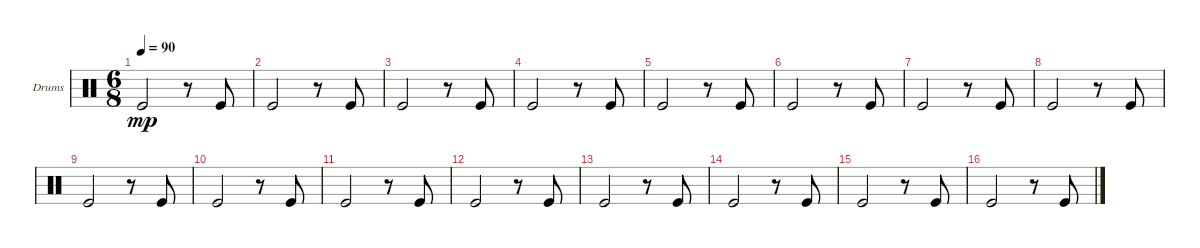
\defaultSystemsLayout 4
\bracketExtendMode groupsimilarinstruments
\firstSystemTrackNameOrientation horizontal
\otherSystemsTrackNameOrientation horizontal
\track ("Drumkit" "Drums") {instrument percussion}
\staff {score}
\articulation defaults
\ts (6 8)
\tempo 90
\clef neutral
\scale
0.263889
\ks c "Kick (hit)".2{dy mp}
r.8 "Kick (hit)".8 |
\scale
0.263889 "Kick (hit)".2 r.8 "Kick (hit)".8 |
\scale
0.333333 "Kick (hit)".2 r.8 "Kick (hit)".8 |
\scale
0.333333 "Kick (hit)".2 r.8 "Kick (hit)".8 |
\scale
0.333333 "Kick (hit)".2 r.8 "Kick (hit)".8 |
\scale
0.333333 "Kick (hit)".2 r.8 "Kick (hit)".8 |
\scale
0.333333 "Kick (hit)".2 r.8 "Kick (hit)".8 |
\scale
0.333333 "Kick (hit)".2 r.8 "Kick (hit)".8 |
\scale
0.333333 "Kick (hit)".2 r.8 "Kick (hit)".8 |
\scale
0.333333 "Kick (hit)".2 r.8 "Kick (hit)".8 |
\scale
0.333333 "Kick (hit)".2 r.8 "Kick (hit)".8 |
\scale
0.333333 "Kick (hit)".2 r.8 "Kick (hit)".8 |
\scale
0.333333 "Kick (hit)".2 r.8 "Kick (hit)".8 |
\scale
0.333333 "Kick (hit)".2 r.8 "Kick (hit)".8 |
\scale
0.333333 "Kick (hit)".2 r.8 "Kick (hit)".8 |
\scale
0.333333 "Kick (hit)".2 r.8 "Kick (hit)".8
